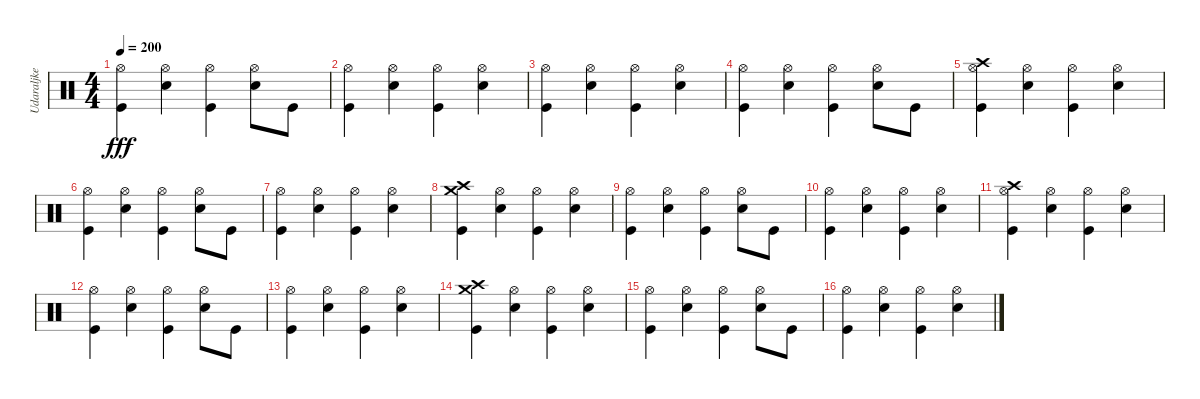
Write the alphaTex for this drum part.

\track ("Udaraljke" "Udaraljke") {instrument percussion}
\staff {score}
\articulation defaults
\ts (4 4)
\tempo 200
\clef neutral
\ks c
("Hi-Hat (open)" "Kick (hit)").4{dy fff} ("Hi-Hat (open)" "Electric Snare (hit)").4 ("Hi-Hat (open)" "Kick (hit)").4 ("Hi-Hat (open)" "Electric Snare (hit)").8 "Kick (hit)".8 |
("Hi-Hat (open)" "Kick (hit)").4 ("Hi-Hat (open)" "Electric Snare (hit)").4 ("Hi-Hat (open)" "Kick (hit)").4 ("Hi-Hat (open)" "Electric Snare (hit)").4 |
("Hi-Hat (open)" "Kick (hit)").4 ("Hi-Hat (open)" "Electric Snare (hit)").4 ("Hi-Hat (open)" "Kick (hit)").4 ("Hi-Hat (open)" "Electric Snare (hit)").4 |
("Hi-Hat (open)" "Kick (hit)").4 ("Hi-Hat (open)" "Electric Snare (hit)").4 ("Hi-Hat (open)" "Kick (hit)").4 ("Hi-Hat (open)" "Electric Snare (hit)").8 "Kick (hit)".8 |
("Crash high (hit)" "Hi-Hat (open)" "Kick (hit)").4 ("Hi-Hat (open)" "Electric Snare (hit)").4 ("Hi-Hat (open)" "Kick (hit)").4 ("Hi-Hat (open)" "Electric Snare (hit)").4 |
("Hi-Hat (open)" "Kick (hit)").4 ("Hi-Hat (open)" "Electric Snare (hit)").4 ("Hi-Hat (open)" "Kick (hit)").4 ("Hi-Hat (open)" "Electric Snare (hit)").8 "Kick (hit)".8 |
("Hi-Hat (open)" "Kick (hit)").4 ("Hi-Hat (open)" "Electric Snare (hit)").4 ("Hi-Hat (open)" "Kick (hit)").4 ("Hi-Hat (open)" "Electric Snare (hit)").4 |
("Crash high (hit)" "Crash medium (hit)" "Kick (hit)").4 ("Hi-Hat (open)" "Electric Snare (hit)").4 ("Hi-Hat (open)" "Kick (hit)").4 ("Hi-Hat (open)" "Electric Snare (hit)").4 |
("Hi-Hat (open)" "Kick (hit)").4 ("Hi-Hat (open)" "Electric Snare (hit)").4 ("Hi-Hat (open)" "Kick (hit)").4 ("Hi-Hat (open)" "Electric Snare (hit)").8 "Kick (hit)".8 |
("Hi-Hat (open)" "Kick (hit)").4 ("Hi-Hat (open)" "Electric Snare (hit)").4 ("Hi-Hat (open)" "Kick (hit)").4 ("Hi-Hat (open)" "Electric Snare (hit)").4 |
("Crash high (hit)" "Hi-Hat (open)" "Kick (hit)").4 ("Hi-Hat (open)" "Electric Snare (hit)").4 ("Hi-Hat (open)" "Kick (hit)").4 ("Hi-Hat (open)" "Electric Snare (hit)").4 |
("Hi-Hat (open)" "Kick (hit)").4 ("Hi-Hat (open)" "Electric Snare (hit)").4 ("Hi-Hat (open)" "Kick (hit)").4 ("Hi-Hat (open)" "Electric Snare (hit)").8 "Kick (hit)".8 |
("Hi-Hat (open)" "Kick (hit)").4 ("Hi-Hat (open)" "Electric Snare (hit)").4 ("Hi-Hat (open)" "Kick (hit)").4 ("Hi-Hat (open)" "Electric Snare (hit)").4 |
("Crash high (hit)" "Crash medium (hit)" "Kick (hit)").4 ("Hi-Hat (open)" "Electric Snare (hit)").4 ("Hi-Hat (open)" "Kick (hit)").4 ("Hi-Hat (open)" "Electric Snare (hit)").4 |
("Hi-Hat (open)" "Kick (hit)").4 ("Hi-Hat (open)" "Electric Snare (hit)").4 ("Hi-Hat (open)" "Kick (hit)").4 ("Hi-Hat (open)" "Electric Snare (hit)").8 "Kick (hit)".8 |
("Hi-Hat (open)" "Kick (hit)").4 ("Hi-Hat (open)" "Electric Snare (hit)").4 ("Hi-Hat (open)" "Kick (hit)").4 ("Hi-Hat (open)" "Electric Snare (hit)").4
